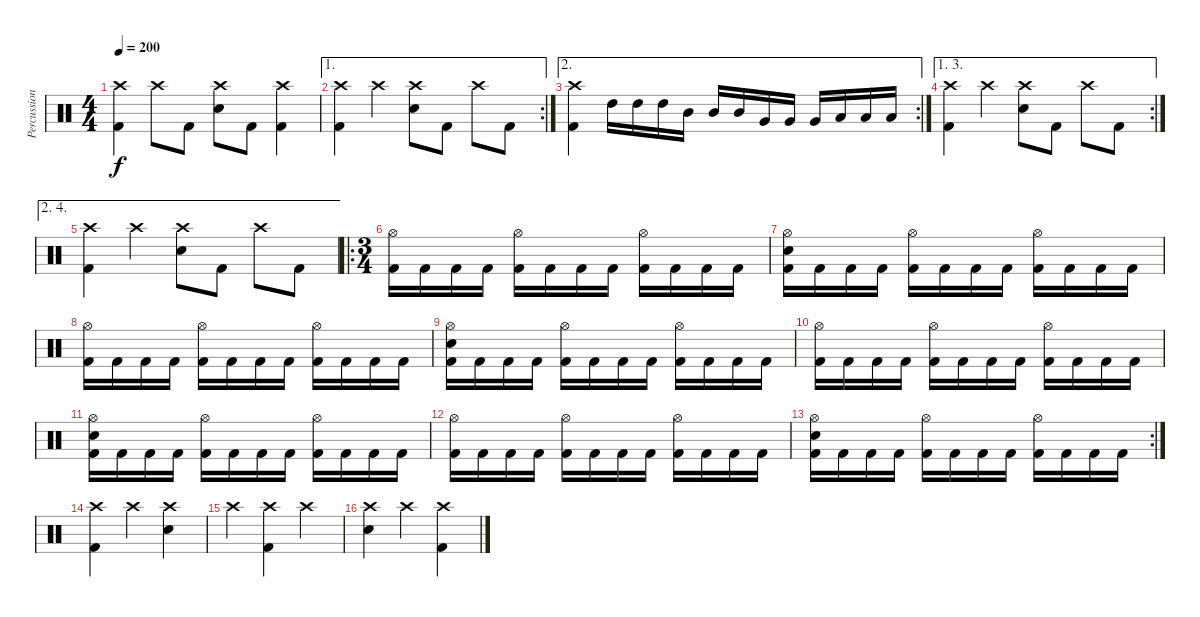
\track ("Percussion" "Percussion") {instrument percussion}
\staff {score}
\articulation defaults
\ts (4 4)
\tempo 200
\clef neutral
\ks c
("Crash high (hit)" "Kick (hit) 2").4{dy f} "Crash high (hit)".8 "Kick (hit) 2".8 ("Crash high (hit)" "Electric Snare (hit)").8 "Kick (hit) 2".8 ("Crash high (hit)" "Kick (hit) 2").4 |
\ae 1
\rc 2
("Crash high (hit)" "Kick (hit) 2").4 "Crash high (hit)".4 ("Crash high (hit)" "Electric Snare (hit)").8 "Kick (hit) 2".8 "Crash high (hit)".8 "Kick (hit) 2".8 |
\ae 2
\rc 2
("Crash high (hit)" "Kick (hit) 2").4 "High Tom (hit)".16 "High Tom (hit)".16 "High Tom (hit)".16 "Mid Tom (hit)".16 "Mid Tom (hit)".16 "Mid Tom (hit)".16 "Very Low Tom (hit)".16 "Very Low Tom (hit)".16 "Very Low Tom (hit)".16 "Low Floor Tom (hit)".16 "Low Floor Tom (hit)".16 "Low Floor Tom (hit)".16 |
\ae (1 3)
\rc 2
("Crash high (hit)" "Kick (hit) 2").4 "Crash high (hit)".4 ("Crash high (hit)" "Electric Snare (hit)").8 "Kick (hit) 2".8 "Crash high (hit)".8 "Kick (hit) 2".8 |
\ae (2 4)
("Crash high (hit)" "Kick (hit) 2").4 "Crash high (hit)".4 ("Crash high (hit)" "Electric Snare (hit)").8 "Kick (hit) 2".8 "Crash high (hit)".8 "Kick (hit) 2".8 |
\ro
\ts (3 4)
("Hi-Hat (open)" "Kick (hit) 2").16 "Kick (hit) 2".16 "Kick (hit) 2".16 "Kick (hit) 2".16 ("Hi-Hat (open)" "Kick (hit) 2").16 "Kick (hit) 2".16 "Kick (hit) 2".16 "Kick (hit) 2".16 ("Hi-Hat (open)" "Kick (hit) 2").16 "Kick (hit) 2".16 "Kick (hit) 2".16 "Kick (hit) 2".16 |
("Hi-Hat (open)" "Electric Snare (hit)" "Kick (hit) 2").16 "Kick (hit) 2".16 "Kick (hit) 2".16 "Kick (hit) 2".16 ("Hi-Hat (open)" "Kick (hit) 2").16 "Kick (hit) 2".16 "Kick (hit) 2".16 "Kick (hit) 2".16 ("Hi-Hat (open)" "Kick (hit) 2").16 "Kick (hit) 2".16 "Kick (hit) 2".16 "Kick (hit) 2".16 |
("Hi-Hat (open)" "Kick (hit) 2").16 "Kick (hit) 2".16 "Kick (hit) 2".16 "Kick (hit) 2".16 ("Hi-Hat (open)" "Kick (hit) 2").16 "Kick (hit) 2".16 "Kick (hit) 2".16 "Kick (hit) 2".16 ("Hi-Hat (open)" "Kick (hit) 2").16 "Kick (hit) 2".16 "Kick (hit) 2".16 "Kick (hit) 2".16 |
("Hi-Hat (open)" "Electric Snare (hit)" "Kick (hit) 2").16 "Kick (hit) 2".16 "Kick (hit) 2".16 "Kick (hit) 2".16 ("Hi-Hat (open)" "Kick (hit) 2").16 "Kick (hit) 2".16 "Kick (hit) 2".16 "Kick (hit) 2".16 ("Hi-Hat (open)" "Kick (hit) 2").16 "Kick (hit) 2".16 "Kick (hit) 2".16 "Kick (hit) 2".16 |
("Hi-Hat (open)" "Kick (hit) 2").16 "Kick (hit) 2".16 "Kick (hit) 2".16 "Kick (hit) 2".16 ("Hi-Hat (open)" "Kick (hit) 2").16 "Kick (hit) 2".16 "Kick (hit) 2".16 "Kick (hit) 2".16 ("Hi-Hat (open)" "Kick (hit) 2").16 "Kick (hit) 2".16 "Kick (hit) 2".16 "Kick (hit) 2".16 |
("Hi-Hat (open)" "Electric Snare (hit)" "Kick (hit) 2").16 "Kick (hit) 2".16 "Kick (hit) 2".16 "Kick (hit) 2".16 ("Hi-Hat (open)" "Kick (hit) 2").16 "Kick (hit) 2".16 "Kick (hit) 2".16 "Kick (hit) 2".16 ("Hi-Hat (open)" "Kick (hit) 2").16 "Kick (hit) 2".16 "Kick (hit) 2".16 "Kick (hit) 2".16 |
("Hi-Hat (open)" "Kick (hit) 2").16 "Kick (hit) 2".16 "Kick (hit) 2".16 "Kick (hit) 2".16 ("Hi-Hat (open)" "Kick (hit) 2").16 "Kick (hit) 2".16 "Kick (hit) 2".16 "Kick (hit) 2".16 ("Hi-Hat (open)" "Kick (hit) 2").16 "Kick (hit) 2".16 "Kick (hit) 2".16 "Kick (hit) 2".16 |
\rc 2
("Hi-Hat (open)" "Electric Snare (hit)" "Kick (hit) 2").16 "Kick (hit) 2".16 "Kick (hit) 2".16 "Kick (hit) 2".16 ("Hi-Hat (open)" "Kick (hit) 2").16 "Kick (hit) 2".16 "Kick (hit) 2".16 "Kick (hit) 2".16 ("Hi-Hat (open)" "Kick (hit) 2").16 "Kick (hit) 2".16 "Kick (hit) 2".16 "Kick (hit) 2".16 |
("Crash high (hit)" "Kick (hit) 2").4 "Crash high (hit)".4 ("Crash high (hit)" "Electric Snare (hit)").4 |
"Crash high (hit)".4 ("Crash high (hit)" "Kick (hit) 2").4 "Crash high (hit)".4 |
("Crash high (hit)" "Electric Snare (hit)").4 "Crash high (hit)".4 ("Crash high (hit)" "Kick (hit) 2").4
